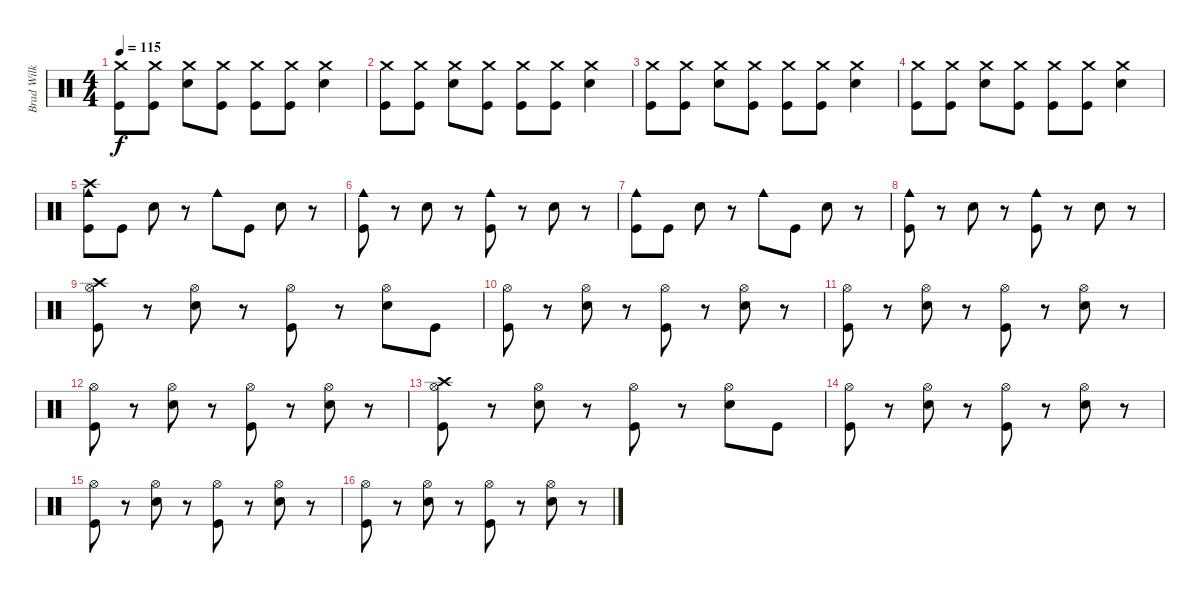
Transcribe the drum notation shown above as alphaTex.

\track ("Brad Wilk - Drums" "Brad Wilk ") {instrument percussion}
\staff {score}
\articulation defaults
\ts (4 4)
\tempo 115
\clef neutral
\ks c
("Crash medium (hit)" "Kick (hit)").8{dy f} ("Crash medium (hit)" "Kick (hit)").8 ("Snare (hit) 2" "Crash medium (hit)").8 ("Crash medium (hit)" "Kick (hit)").8 ("Crash medium (hit)" "Kick (hit)").8 ("Crash medium (hit)" "Kick (hit)").8 ("Snare (hit) 2" "Crash medium (hit)").4 |
("Crash medium (hit)" "Kick (hit)").8 ("Crash medium (hit)" "Kick (hit)").8 ("Snare (hit) 2" "Crash medium (hit)").8 ("Crash medium (hit)" "Kick (hit)").8 ("Crash medium (hit)" "Kick (hit)").8 ("Crash medium (hit)" "Kick (hit)").8 ("Snare (hit) 2" "Crash medium (hit)").4 |
("Crash medium (hit)" "Kick (hit)").8 ("Crash medium (hit)" "Kick (hit)").8 ("Snare (hit) 2" "Crash medium (hit)").8 ("Crash medium (hit)" "Kick (hit)").8 ("Crash medium (hit)" "Kick (hit)").8 ("Crash medium (hit)" "Kick (hit)").8 ("Snare (hit) 2" "Crash medium (hit)").4 |
("Crash medium (hit)" "Kick (hit)").8 ("Crash medium (hit)" "Kick (hit)").8 ("Snare (hit) 2" "Crash medium (hit)").8 ("Crash medium (hit)" "Kick (hit)").8 ("Crash medium (hit)" "Kick (hit)").8 ("Crash medium (hit)" "Kick (hit)").8 ("Snare (hit) 2" "Crash medium (hit)").4 |
("Crash high (hit)" "Cowbell medium (hit)" "Kick (hit)").8 "Kick (hit)".8 "Snare (hit) 2".8 r.8 "Cowbell medium (hit)".8 "Kick (hit)".8 "Snare (hit) 2".8 r.8 |
("Cowbell medium (hit)" "Kick (hit)").8 r.8 "Snare (hit) 2".8 r.8 ("Cowbell medium (hit)" "Kick (hit)").8 r.8 "Snare (hit) 2".8 r.8 |
("Cowbell medium (hit)" "Kick (hit)").8 "Kick (hit)".8 "Snare (hit) 2".8 r.8 "Cowbell medium (hit)".8 "Kick (hit)".8 "Snare (hit) 2".8 r.8 |
("Cowbell medium (hit)" "Kick (hit)").8 r.8 "Snare (hit) 2".8 r.8 ("Cowbell medium (hit)" "Kick (hit)").8 r.8 "Snare (hit) 2".8 r.8 |
("Crash high (hit)" "Hi-Hat (open)" "Kick (hit)").8 r.8 ("Snare (hit) 2" "Hi-Hat (open)").8 r.8 ("Hi-Hat (open)" "Kick (hit)").8 r.8 ("Snare (hit) 2" "Hi-Hat (open)").8 "Kick (hit)".8 |
("Hi-Hat (open)" "Kick (hit)").8 r.8 ("Snare (hit) 2" "Hi-Hat (open)").8 r.8 ("Hi-Hat (open)" "Kick (hit)").8 r.8 ("Snare (hit) 2" "Hi-Hat (open)").8 r.8 |
("Hi-Hat (open)" "Kick (hit)").8 r.8 ("Snare (hit) 2" "Hi-Hat (open)").8 r.8 ("Hi-Hat (open)" "Kick (hit)").8 r.8 ("Snare (hit) 2" "Hi-Hat (open)").8 r.8 |
("Hi-Hat (open)" "Kick (hit)").8 r.8 ("Snare (hit) 2" "Hi-Hat (open)").8 r.8 ("Hi-Hat (open)" "Kick (hit)").8 r.8 ("Snare (hit) 2" "Hi-Hat (open)").8 r.8 |
("Crash high (hit)" "Hi-Hat (open)" "Kick (hit)").8 r.8 ("Snare (hit) 2" "Hi-Hat (open)").8 r.8 ("Hi-Hat (open)" "Kick (hit)").8 r.8 ("Snare (hit) 2" "Hi-Hat (open)").8 "Kick (hit)".8 |
("Hi-Hat (open)" "Kick (hit)").8 r.8 ("Snare (hit) 2" "Hi-Hat (open)").8 r.8 ("Hi-Hat (open)" "Kick (hit)").8 r.8 ("Snare (hit) 2" "Hi-Hat (open)").8 r.8 |
("Hi-Hat (open)" "Kick (hit)").8 r.8 ("Snare (hit) 2" "Hi-Hat (open)").8 r.8 ("Hi-Hat (open)" "Kick (hit)").8 r.8 ("Snare (hit) 2" "Hi-Hat (open)").8 r.8 |
("Hi-Hat (open)" "Kick (hit)").8 r.8 ("Snare (hit) 2" "Hi-Hat (open)").8 r.8 ("Hi-Hat (open)" "Kick (hit)").8 r.8 ("Snare (hit) 2" "Hi-Hat (open)").8 r.8
